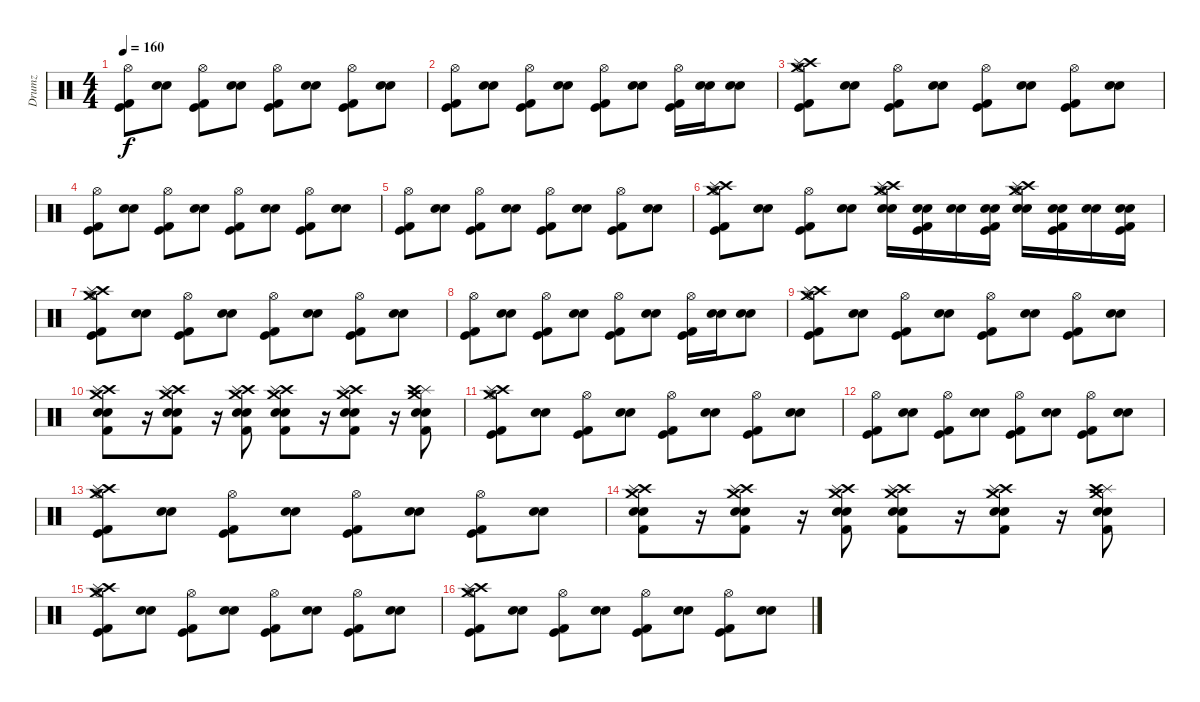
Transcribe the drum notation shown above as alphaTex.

\track ("Drumz" "Drumz") {instrument percussion}
\staff {score}
\articulation defaults
\ts (4 4)
\tempo 160
\clef neutral
\ks c
("Kick (hit)" "Kick (hit) 2" "Hi-Hat (open)").8{dy f} ("Electric Snare (hit)" "Snare (hit) 2").8 ("Kick (hit) 2" "Kick (hit)" "Hi-Hat (open)").8 ("Snare (hit) 2" "Electric Snare (hit)").8 ("Kick (hit) 2" "Kick (hit)" "Hi-Hat (open)").8 ("Electric Snare (hit)" "Snare (hit) 2").8 ("Kick (hit)" "Kick (hit) 2" "Hi-Hat (open)").8 ("Snare (hit) 2" "Electric Snare (hit)").8 |
("Kick (hit)" "Kick (hit) 2" "Hi-Hat (open)").8 ("Electric Snare (hit)" "Snare (hit) 2").8 ("Kick (hit) 2" "Kick (hit)" "Hi-Hat (open)").8 ("Snare (hit) 2" "Electric Snare (hit)").8 ("Kick (hit) 2" "Kick (hit)" "Hi-Hat (open)").8 ("Electric Snare (hit)" "Snare (hit) 2").8 ("Kick (hit)" "Kick (hit) 2" "Hi-Hat (open)").16 ("Snare (hit) 2" "Electric Snare (hit)").16 ("Snare (hit) 2" "Electric Snare (hit)").8 |
("Kick (hit)" "Kick (hit) 2" "Hi-Hat (open)" "Crash high (hit)" "Crash medium (hit)" "Splash (hit)").8{volume 12} ("Electric Snare (hit)" "Snare (hit) 2").8 ("Kick (hit) 2" "Kick (hit)" "Hi-Hat (open)").8 ("Snare (hit) 2" "Electric Snare (hit)").8 ("Kick (hit) 2" "Kick (hit)" "Hi-Hat (open)").8 ("Electric Snare (hit)" "Snare (hit) 2").8 ("Kick (hit)" "Kick (hit) 2" "Hi-Hat (open)").8 ("Snare (hit) 2" "Electric Snare (hit)").8 |
("Kick (hit)" "Kick (hit) 2" "Hi-Hat (open)").8 ("Electric Snare (hit)" "Snare (hit) 2").8 ("Kick (hit) 2" "Kick (hit)" "Hi-Hat (open)").8 ("Snare (hit) 2" "Electric Snare (hit)").8 ("Kick (hit) 2" "Kick (hit)" "Hi-Hat (open)").8 ("Electric Snare (hit)" "Snare (hit) 2").8 ("Kick (hit)" "Kick (hit) 2" "Hi-Hat (open)").8 ("Snare (hit) 2" "Electric Snare (hit)").8 |
("Kick (hit)" "Kick (hit) 2" "Hi-Hat (open)").8 ("Electric Snare (hit)" "Snare (hit) 2").8 ("Kick (hit) 2" "Kick (hit)" "Hi-Hat (open)").8 ("Snare (hit) 2" "Electric Snare (hit)").8 ("Kick (hit) 2" "Kick (hit)" "Hi-Hat (open)").8 ("Electric Snare (hit)" "Snare (hit) 2").8 ("Kick (hit)" "Kick (hit) 2" "Hi-Hat (open)").8 ("Snare (hit) 2" "Electric Snare (hit)").8 |
("Kick (hit)" "Kick (hit) 2" "Hi-Hat (open)" "Crash high (hit)" "Splash (hit)" "Crash medium (hit)").8 ("Electric Snare (hit)" "Snare (hit) 2").8 ("Kick (hit) 2" "Kick (hit)" "Hi-Hat (open)").8 ("Snare (hit) 2" "Electric Snare (hit)").8 ("Crash medium (hit)" "Electric Snare (hit)" "Hi-Hat (open)" "Crash high (hit)" "Splash (hit)" "Snare (hit) 2").16 ("Kick (hit) 2" "Kick (hit)" "Electric Snare (hit)" "Snare (hit) 2").16 ("Electric Snare (hit)" "Snare (hit) 2").16 ("Snare (hit) 2" "Electric Snare (hit)" "Kick (hit) 2" "Kick (hit)").16 ("Crash medium (hit)" "Snare (hit) 2" "Hi-Hat (open)" "Crash high (hit)" "Splash (hit)" "Electric Snare (hit)").16 ("Kick (hit)" "Kick (hit) 2" "Snare (hit) 2" "Electric Snare (hit)").16 ("Snare (hit) 2" "Electric Snare (hit)").16 ("Electric Snare (hit)" "Snare (hit) 2" "Kick (hit) 2" "Kick (hit)").16 |
("Kick (hit)" "Kick (hit) 2" "Hi-Hat (open)" "Crash high (hit)" "Crash medium (hit)" "Splash (hit)").8{volume 12} ("Electric Snare (hit)" "Snare (hit) 2").8 ("Kick (hit) 2" "Kick (hit)" "Hi-Hat (open)").8 ("Snare (hit) 2" "Electric Snare (hit)").8 ("Kick (hit) 2" "Kick (hit)" "Hi-Hat (open)").8 ("Electric Snare (hit)" "Snare (hit) 2").8 ("Kick (hit)" "Kick (hit) 2" "Hi-Hat (open)").8 ("Snare (hit) 2" "Electric Snare (hit)").8 |
("Kick (hit)" "Kick (hit) 2" "Hi-Hat (open)").8 ("Electric Snare (hit)" "Snare (hit) 2").8 ("Kick (hit) 2" "Kick (hit)" "Hi-Hat (open)").8 ("Snare (hit) 2" "Electric Snare (hit)").8 ("Kick (hit) 2" "Kick (hit)" "Hi-Hat (open)").8 ("Electric Snare (hit)" "Snare (hit) 2").8 ("Kick (hit)" "Kick (hit) 2" "Hi-Hat (open)").16 ("Snare (hit) 2" "Electric Snare (hit)").16 ("Snare (hit) 2" "Electric Snare (hit)").8 |
("Kick (hit)" "Kick (hit) 2" "Hi-Hat (open)" "Crash high (hit)" "Splash (hit)" "Crash medium (hit)").8 ("Electric Snare (hit)" "Snare (hit) 2").8 ("Kick (hit) 2" "Kick (hit)" "Hi-Hat (open)").8 ("Snare (hit) 2" "Electric Snare (hit)").8 ("Kick (hit) 2" "Kick (hit)" "Hi-Hat (open)").8 ("Electric Snare (hit)" "Snare (hit) 2").8 ("Kick (hit)" "Kick (hit) 2" "Hi-Hat (open)").8 ("Snare (hit) 2" "Electric Snare (hit)").8 |
("Snare (hit) 2" "Electric Snare (hit)" "Kick (hit) 2" "Crash high (hit)" "Splash (hit)" "Crash medium (hit)").8 r.16 ("Snare (hit) 2" "Electric Snare (hit)" "Kick (hit) 2" "Crash high (hit)" "Splash (hit)" "Crash medium (hit)").8 r.16 ("Kick (hit) 2" "Snare (hit) 2" "Electric Snare (hit)" "Crash high (hit)" "Splash (hit)" "Crash medium (hit)").8 ("Crash high (hit)" "Splash (hit)" "Crash medium (hit)" "Electric Snare (hit)" "Snare (hit) 2" "Kick (hit) 2").8 r.16 ("Crash high (hit)" "Splash (hit)" "Crash medium (hit)" "Electric Snare (hit)" "Snare (hit) 2" "Kick (hit) 2").8 r.16 ("Splash (hit)" "Crash medium (hit)" "Electric Snare (hit)" "Snare (hit) 2" "Kick (hit) 2" "Crash high (hit)").8 |
("Kick (hit)" "Kick (hit) 2" "Hi-Hat (open)" "Crash high (hit)" "Crash medium (hit)" "Splash (hit)").8{volume 12} ("Electric Snare (hit)" "Snare (hit) 2").8 ("Kick (hit) 2" "Kick (hit)" "Hi-Hat (open)").8 ("Snare (hit) 2" "Electric Snare (hit)").8 ("Kick (hit) 2" "Kick (hit)" "Hi-Hat (open)").8 ("Electric Snare (hit)" "Snare (hit) 2").8 ("Kick (hit)" "Kick (hit) 2" "Hi-Hat (open)").8 ("Snare (hit) 2" "Electric Snare (hit)").8 |
("Kick (hit)" "Kick (hit) 2" "Hi-Hat (open)").8 ("Electric Snare (hit)" "Snare (hit) 2").8 ("Kick (hit) 2" "Kick (hit)" "Hi-Hat (open)").8 ("Snare (hit) 2" "Electric Snare (hit)").8 ("Kick (hit) 2" "Kick (hit)" "Hi-Hat (open)").8 ("Electric Snare (hit)" "Snare (hit) 2").8 ("Kick (hit)" "Kick (hit) 2" "Hi-Hat (open)").8 ("Snare (hit) 2" "Electric Snare (hit)").8 |
("Kick (hit)" "Kick (hit) 2" "Hi-Hat (open)" "Crash high (hit)" "Splash (hit)" "Crash medium (hit)").8 ("Electric Snare (hit)" "Snare (hit) 2").8 ("Kick (hit) 2" "Kick (hit)" "Hi-Hat (open)").8 ("Snare (hit) 2" "Electric Snare (hit)").8 ("Kick (hit) 2" "Kick (hit)" "Hi-Hat (open)").8 ("Electric Snare (hit)" "Snare (hit) 2").8 ("Kick (hit)" "Kick (hit) 2" "Hi-Hat (open)").8 ("Snare (hit) 2" "Electric Snare (hit)").8 |
("Snare (hit) 2" "Electric Snare (hit)" "Kick (hit) 2" "Crash high (hit)" "Splash (hit)" "Crash medium (hit)").8 r.16 ("Snare (hit) 2" "Electric Snare (hit)" "Kick (hit) 2" "Crash high (hit)" "Splash (hit)" "Crash medium (hit)").8 r.16 ("Kick (hit) 2" "Snare (hit) 2" "Electric Snare (hit)" "Crash high (hit)" "Splash (hit)" "Crash medium (hit)").8 ("Crash high (hit)" "Splash (hit)" "Crash medium (hit)" "Electric Snare (hit)" "Snare (hit) 2" "Kick (hit) 2").8 r.16 ("Crash high (hit)" "Splash (hit)" "Crash medium (hit)" "Electric Snare (hit)" "Snare (hit) 2" "Kick (hit) 2").8 r.16 ("Splash (hit)" "Crash medium (hit)" "Electric Snare (hit)" "Snare (hit) 2" "Kick (hit) 2" "Crash high (hit)").8 |
("Kick (hit)" "Kick (hit) 2" "Hi-Hat (open)" "Crash high (hit)" "Crash medium (hit)" "Splash (hit)").8{volume 12} ("Electric Snare (hit)" "Snare (hit) 2").8 ("Kick (hit) 2" "Kick (hit)" "Hi-Hat (open)").8 ("Snare (hit) 2" "Electric Snare (hit)").8 ("Kick (hit) 2" "Kick (hit)" "Hi-Hat (open)").8 ("Electric Snare (hit)" "Snare (hit) 2").8 ("Kick (hit)" "Kick (hit) 2" "Hi-Hat (open)").8 ("Snare (hit) 2" "Electric Snare (hit)").8 |
("Kick (hit)" "Kick (hit) 2" "Hi-Hat (open)" "Crash high (hit)" "Splash (hit)" "Crash medium (hit)").8 ("Electric Snare (hit)" "Snare (hit) 2").8 ("Kick (hit) 2" "Kick (hit)" "Hi-Hat (open)").8 ("Snare (hit) 2" "Electric Snare (hit)").8 ("Kick (hit) 2" "Kick (hit)" "Hi-Hat (open)").8 ("Electric Snare (hit)" "Snare (hit) 2").8 ("Kick (hit)" "Kick (hit) 2" "Hi-Hat (open)").8 ("Snare (hit) 2" "Electric Snare (hit)").8
